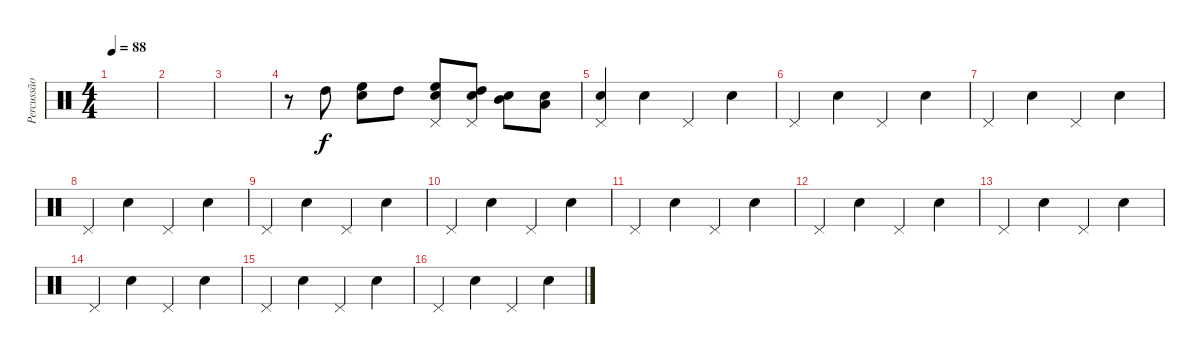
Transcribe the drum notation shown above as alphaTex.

\track ("Percussão" "Percussão") {instrument percussion}
\staff {score}
\articulation defaults
\ts (4 4)
\tempo 88
\clef neutral
\ks c
|
|
|
r.8 "High Tom (hit)".8 ("Electric Snare (hit)" "High Floor Tom (hit)").8 "High Tom (hit)".8 ("Pedal Hi-Hat (hit)" "Electric Snare (hit)" "High Floor Tom (hit)").8 ("Pedal Hi-Hat (hit)" "Electric Snare (hit)" "High Tom (hit)").8 ("Electric Snare (hit)" "Mid Tom (hit)").8 ("Electric Snare (hit)" "Low Tom (hit)").8 |
("Pedal Hi-Hat (hit)" "Snare (hit)").4 "Electric Snare (hit)".4 "Pedal Hi-Hat (hit)".4 "Electric Snare (hit)".4 |
"Pedal Hi-Hat (hit)".4 "Electric Snare (hit)".4 "Pedal Hi-Hat (hit)".4 "Electric Snare (hit)".4 |
"Pedal Hi-Hat (hit)".4 "Electric Snare (hit)".4 "Pedal Hi-Hat (hit)".4 "Electric Snare (hit)".4 |
"Pedal Hi-Hat (hit)".4 "Electric Snare (hit)".4 "Pedal Hi-Hat (hit)".4 "Electric Snare (hit)".4 |
"Pedal Hi-Hat (hit)".4 "Electric Snare (hit)".4 "Pedal Hi-Hat (hit)".4 "Electric Snare (hit)".4 |
"Pedal Hi-Hat (hit)".4 "Electric Snare (hit)".4 "Pedal Hi-Hat (hit)".4 "Electric Snare (hit)".4 |
"Pedal Hi-Hat (hit)".4 "Electric Snare (hit)".4 "Pedal Hi-Hat (hit)".4 "Electric Snare (hit)".4 |
"Pedal Hi-Hat (hit)".4 "Electric Snare (hit)".4 "Pedal Hi-Hat (hit)".4 "Electric Snare (hit)".4 |
"Pedal Hi-Hat (hit)".4 "Electric Snare (hit)".4 "Pedal Hi-Hat (hit)".4 "Electric Snare (hit)".4 |
"Pedal Hi-Hat (hit)".4 "Electric Snare (hit)".4 "Pedal Hi-Hat (hit)".4 "Electric Snare (hit)".4 |
"Pedal Hi-Hat (hit)".4 "Electric Snare (hit)".4 "Pedal Hi-Hat (hit)".4 "Electric Snare (hit)".4 |
"Pedal Hi-Hat (hit)".4 "Electric Snare (hit)".4 "Pedal Hi-Hat (hit)".4 "Electric Snare (hit)".4
